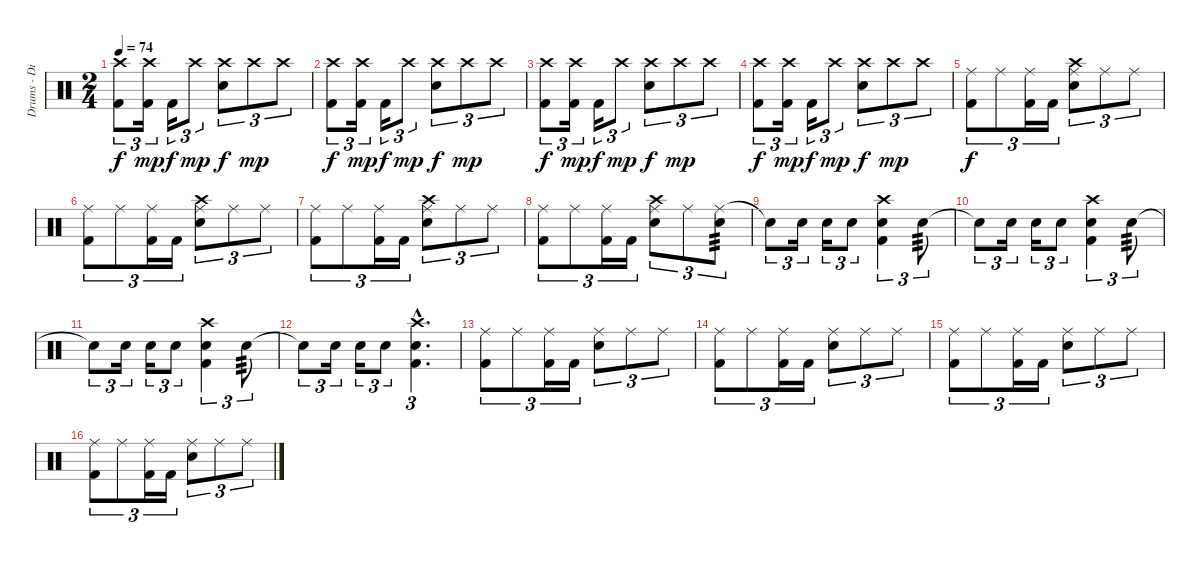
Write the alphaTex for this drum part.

\track ("Drums - Dino Campanella" "Drums - Di") {instrument percussion}
\staff {score}
\articulation defaults
\ts (2 4)
\tempo 74
\clef neutral
\ks c
("Crash high (hit)" "Kick (hit) 2").8{tu (3 2) dy f} ("Crash high (hit)" "Kick (hit) 2").16{tu (3 2) dy mp} "Kick (hit) 2".16{tu (3 2) dy f} "Crash high (hit)".8{tu (3 2) dy mp} ("Crash high (hit)" "Snare (hit) 2").8{tu (3 2) dy f} "Crash high (hit)".8{tu (3 2) dy mp} "Crash high (hit)".8{tu (3 2)} |
("Crash high (hit)" "Kick (hit) 2").8{tu (3 2) dy f} ("Crash high (hit)" "Kick (hit) 2").16{tu (3 2) dy mp} "Kick (hit) 2".16{tu (3 2) dy f} "Crash high (hit)".8{tu (3 2) dy mp} ("Crash high (hit)" "Snare (hit) 2").8{tu (3 2) dy f} "Crash high (hit)".8{tu (3 2) dy mp} "Crash high (hit)".8{tu (3 2)} |
("Crash high (hit)" "Kick (hit) 2").8{tu (3 2) dy f} ("Crash high (hit)" "Kick (hit) 2").16{tu (3 2) dy mp} "Kick (hit) 2".16{tu (3 2) dy f} "Crash high (hit)".8{tu (3 2) dy mp} ("Crash high (hit)" "Snare (hit) 2").8{tu (3 2) dy f} "Crash high (hit)".8{tu (3 2) dy mp} "Crash high (hit)".8{tu (3 2)} |
("Crash high (hit)" "Kick (hit) 2").8{tu (3 2) dy f} ("Crash high (hit)" "Kick (hit) 2").16{tu (3 2) dy mp} "Kick (hit) 2".16{tu (3 2) dy f} "Crash high (hit)".8{tu (3 2) dy mp} ("Crash high (hit)" "Snare (hit) 2").8{tu (3 2) dy f} "Crash high (hit)".8{tu (3 2) dy mp} "Crash high (hit)".8{tu (3 2)} |
("Ride (middle)" "Kick (hit) 2").8{tu (3 2) dy f} "Ride (middle)".8{tu (3 2)} ("Ride (middle)" "Kick (hit) 2").16{tu (3 2)} "Kick (hit) 2".16{tu (3 2)} ("Ride (middle)" "Crash high (hit)" "Snare (hit) 2").8{tu (3 2)} "Ride (middle)".8{tu (3 2)} "Ride (middle)".8{tu (3 2)} |
("Ride (middle)" "Kick (hit) 2").8{tu (3 2)} "Ride (middle)".8{tu (3 2)} ("Ride (middle)" "Kick (hit) 2").16{tu (3 2)} "Kick (hit) 2".16{tu (3 2)} ("Ride (middle)" "Crash high (hit)" "Snare (hit) 2").8{tu (3 2)} "Ride (middle)".8{tu (3 2)} "Ride (middle)".8{tu (3 2)} |
("Ride (middle)" "Kick (hit) 2").8{tu (3 2)} "Ride (middle)".8{tu (3 2)} ("Ride (middle)" "Kick (hit) 2").16{tu (3 2)} "Kick (hit) 2".16{tu (3 2)} ("Ride (middle)" "Crash high (hit)" "Snare (hit) 2").8{tu (3 2)} "Ride (middle)".8{tu (3 2)} "Ride (middle)".8{tu (3 2)} |
("Ride (middle)" "Kick (hit) 2").8{tu (3 2)} "Ride (middle)".8{tu (3 2)} ("Ride (middle)" "Kick (hit) 2").16{tu (3 2)} "Kick (hit) 2".16{tu (3 2)} ("Ride (middle)" "Crash high (hit)" "Snare (hit) 2").8{tu (3 2)} "Ride (middle)".8{tu (3 2)} ("Ride (middle)" "Snare (hit) 2").8{tu (3 2) tp 3} |
"Snare (hit)"{t}.8{tu (3 2)} "Snare (hit) 2".16{tu (3 2)} "Snare (hit) 2".16{tu (3 2)} "Snare (hit) 2".8{tu (3 2)} ("Crash high (hit)" "Kick (hit) 2" "Snare (hit) 2").4{tu (3 2)} "Snare (hit) 2".8{tu (3 2) tp 3} |
"Snare (hit)"{t}.8{tu (3 2)} "Snare (hit) 2".16{tu (3 2)} "Snare (hit) 2".16{tu (3 2)} "Snare (hit) 2".8{tu (3 2)} ("Crash high (hit)" "Kick (hit) 2" "Snare (hit) 2").4{tu (3 2)} "Snare (hit) 2".8{tu (3 2) tp 3} |
"Snare (hit)"{t}.8{tu (3 2)} "Snare (hit) 2".16{tu (3 2)} "Snare (hit) 2".16{tu (3 2)} "Snare (hit) 2".8{tu (3 2)} ("Crash high (hit)" "Kick (hit) 2" "Snare (hit) 2").4{tu (3 2)} "Snare (hit) 2".8{tu (3 2) tp 3} |
"Snare (hit)"{t}.8{tu (3 2)} "Snare (hit) 2".16{tu (3 2)} "Snare (hit) 2".16{tu (3 2)} "Snare (hit) 2".8{tu (3 2)} ("Crash high (hit)"{hac} "Kick (hit) 2"{hac} "Snare (hit) 2"{hac}).4{d tu (3 2)} |
("Ride (middle)" "Kick (hit) 2").8{tu (3 2)} "Ride (middle)".8{tu (3 2)} ("Ride (middle)" "Kick (hit) 2").16{tu (3 2)} "Kick (hit) 2".16{tu (3 2)} ("Ride (middle)" "Snare (hit) 2").8{tu (3 2)} "Ride (middle)".8{tu (3 2)} "Ride (middle)".8{tu (3 2)} |
("Ride (middle)" "Kick (hit) 2").8{tu (3 2)} "Ride (middle)".8{tu (3 2)} ("Ride (middle)" "Kick (hit) 2").16{tu (3 2)} "Kick (hit) 2".16{tu (3 2)} ("Ride (middle)" "Snare (hit) 2").8{tu (3 2)} "Ride (middle)".8{tu (3 2)} "Ride (middle)".8{tu (3 2)} |
("Ride (middle)" "Kick (hit) 2").8{tu (3 2)} "Ride (middle)".8{tu (3 2)} ("Ride (middle)" "Kick (hit) 2").16{tu (3 2)} "Kick (hit) 2".16{tu (3 2)} ("Ride (middle)" "Snare (hit) 2").8{tu (3 2)} "Ride (middle)".8{tu (3 2)} "Ride (middle)".8{tu (3 2)} |
("Ride (middle)" "Kick (hit) 2").8{tu (3 2)} "Ride (middle)".8{tu (3 2)} ("Ride (middle)" "Kick (hit) 2").16{tu (3 2)} "Kick (hit) 2".16{tu (3 2)} ("Ride (middle)" "Snare (hit) 2").8{tu (3 2)} "Ride (middle)".8{tu (3 2)} "Ride (middle)".8{tu (3 2)}
